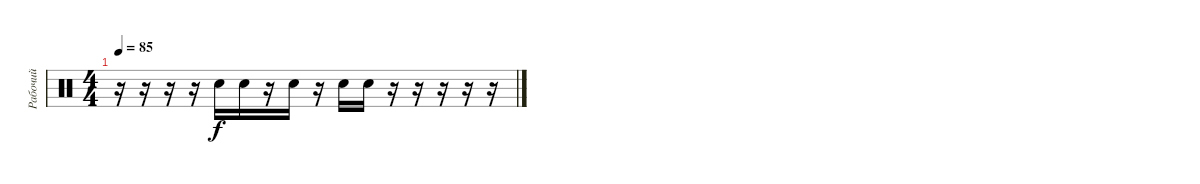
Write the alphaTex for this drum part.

\track ("Рабочий" "Рабочий") {instrument percussion}
\staff {score}
\articulation defaults
\ts (4 4)
\tempo 85
\clef neutral
\ks c
r.16{dy f} r.16 r.16 r.16 "Snare (hit) 2".16 "Snare (hit) 2".16 r.16 "Snare (hit) 2".16 r.16 "Snare (hit) 2".16 "Snare (hit) 2".16 r.16 r.16 r.16 r.16 r.16
